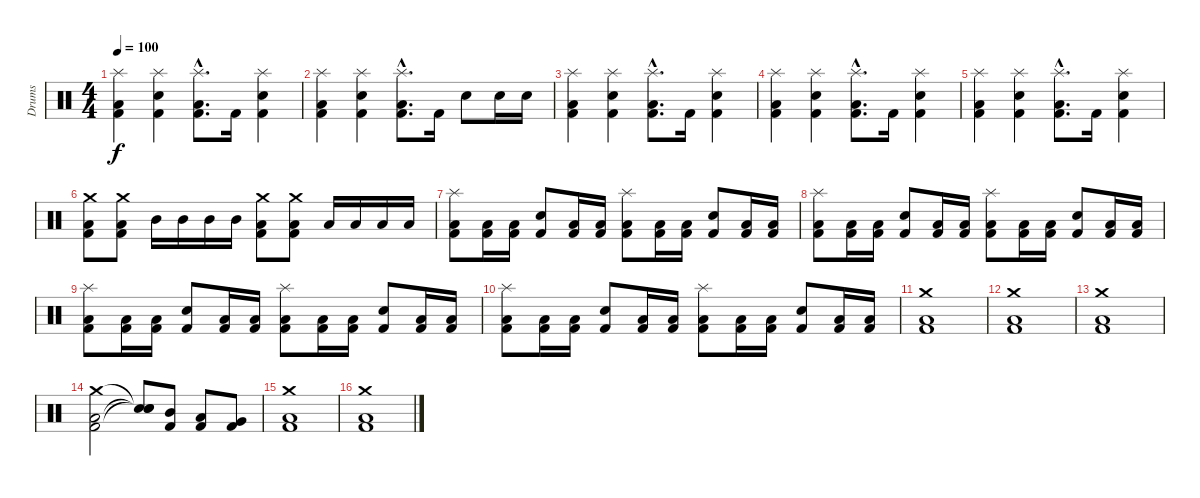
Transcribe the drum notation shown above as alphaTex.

\track ("Drums" "Drums") {instrument percussion}
\staff {score}
\articulation defaults
\ts (4 4)
\tempo 100
\clef neutral
\ks c
("Splash (hit)" "Low Floor Tom (hit)" "Kick (hit) 2").4{dy f} ("Splash (hit)" "Snare (hit) 2" "Kick (hit) 2").4 ("Splash (hit)"{hac} "Low Floor Tom (hit)"{hac} "Kick (hit) 2"{hac}).8{d} "Kick (hit) 2".16 ("Splash (hit)" "Snare (hit) 2" "Kick (hit) 2").4 |
("Splash (hit)" "Low Floor Tom (hit)" "Kick (hit) 2").4 ("Splash (hit)" "Snare (hit) 2" "Kick (hit) 2").4 ("Splash (hit)"{hac} "Low Floor Tom (hit)"{hac} "Kick (hit) 2"{hac}).8{d} "Kick (hit) 2".16 "Snare (hit) 2".8 "Snare (hit) 2".16 "Snare (hit) 2".16 |
("Splash (hit)" "Low Floor Tom (hit)" "Kick (hit) 2").4 ("Splash (hit)" "Snare (hit) 2" "Kick (hit) 2").4 ("Splash (hit)"{hac} "Low Floor Tom (hit)"{hac} "Kick (hit) 2"{hac}).8{d} "Kick (hit) 2".16 ("Splash (hit)" "Snare (hit) 2" "Kick (hit) 2").4 |
("Splash (hit)" "Low Floor Tom (hit)" "Kick (hit) 2").4 ("Splash (hit)" "Snare (hit) 2" "Kick (hit) 2").4 ("Splash (hit)"{hac} "Low Floor Tom (hit)"{hac} "Kick (hit) 2"{hac}).8{d} "Kick (hit) 2".16 ("Splash (hit)" "Snare (hit) 2" "Kick (hit) 2").4 |
("Splash (hit)" "Low Floor Tom (hit)" "Kick (hit) 2").4 ("Splash (hit)" "Snare (hit) 2" "Kick (hit) 2").4 ("Splash (hit)"{hac} "Low Floor Tom (hit)"{hac} "Kick (hit) 2"{hac}).8{d} "Kick (hit) 2".16 ("Splash (hit)" "Snare (hit) 2" "Kick (hit) 2").4 |
("Crash medium (hit)" "Low Floor Tom (hit)" "Kick (hit) 2").8 ("Crash medium (hit)" "Low Floor Tom (hit)" "Kick (hit) 2").8 "Mid Tom (hit)".16 "Mid Tom (hit)".16 "Mid Tom (hit)".16 "Mid Tom (hit)".16 ("Crash medium (hit)" "Low Floor Tom (hit)" "Kick (hit) 2").8 ("Crash medium (hit)" "Low Floor Tom (hit)" "Kick (hit) 2").8 "Low Tom (hit)".16 "Low Tom (hit)".16 "Low Tom (hit)".16 "Low Tom (hit)".16 |
("Splash (hit)" "Low Floor Tom (hit)" "Kick (hit) 2").8 ("Low Floor Tom (hit)" "Kick (hit) 2").16 ("Low Floor Tom (hit)" "Kick (hit) 2").16 ("Snare (hit) 2" "Kick (hit) 2").8 ("Low Floor Tom (hit)" "Kick (hit) 2").16 ("Low Floor Tom (hit)" "Kick (hit) 2").16 ("Splash (hit)" "Low Floor Tom (hit)" "Kick (hit) 2").8 ("Low Floor Tom (hit)" "Kick (hit) 2").16 ("Low Floor Tom (hit)" "Kick (hit) 2").16 ("Snare (hit) 2" "Kick (hit) 2").8 ("Low Floor Tom (hit)" "Kick (hit) 2").16 ("Low Floor Tom (hit)" "Kick (hit) 2").16 |
("Splash (hit)" "Low Floor Tom (hit)" "Kick (hit) 2").8 ("Low Floor Tom (hit)" "Kick (hit) 2").16 ("Low Floor Tom (hit)" "Kick (hit) 2").16 ("Snare (hit) 2" "Kick (hit) 2").8 ("Low Floor Tom (hit)" "Kick (hit) 2").16 ("Low Floor Tom (hit)" "Kick (hit) 2").16 ("Splash (hit)" "Low Floor Tom (hit)" "Kick (hit) 2").8 ("Low Floor Tom (hit)" "Kick (hit) 2").16 ("Low Floor Tom (hit)" "Kick (hit) 2").16 ("Snare (hit) 2" "Kick (hit) 2").8 ("Low Floor Tom (hit)" "Kick (hit) 2").16 ("Low Floor Tom (hit)" "Kick (hit) 2").16 |
("Splash (hit)" "Low Floor Tom (hit)" "Kick (hit) 2").8 ("Low Floor Tom (hit)" "Kick (hit) 2").16 ("Low Floor Tom (hit)" "Kick (hit) 2").16 ("Snare (hit) 2" "Kick (hit) 2").8 ("Low Floor Tom (hit)" "Kick (hit) 2").16 ("Low Floor Tom (hit)" "Kick (hit) 2").16 ("Splash (hit)" "Low Floor Tom (hit)" "Kick (hit) 2").8 ("Low Floor Tom (hit)" "Kick (hit) 2").16 ("Low Floor Tom (hit)" "Kick (hit) 2").16 ("Snare (hit) 2" "Kick (hit) 2").8 ("Low Floor Tom (hit)" "Kick (hit) 2").16 ("Low Floor Tom (hit)" "Kick (hit) 2").16 |
("Splash (hit)" "Low Floor Tom (hit)" "Kick (hit) 2").8 ("Low Floor Tom (hit)" "Kick (hit) 2").16 ("Low Floor Tom (hit)" "Kick (hit) 2").16 ("Snare (hit) 2" "Kick (hit) 2").8 ("Low Floor Tom (hit)" "Kick (hit) 2").16 ("Low Floor Tom (hit)" "Kick (hit) 2").16 ("Splash (hit)" "Low Floor Tom (hit)" "Kick (hit) 2").8 ("Low Floor Tom (hit)" "Kick (hit) 2").16 ("Low Floor Tom (hit)" "Kick (hit) 2").16 ("Snare (hit) 2" "Kick (hit) 2").8 ("Low Floor Tom (hit)" "Kick (hit) 2").16 ("Low Floor Tom (hit)" "Kick (hit) 2").16 |
("Crash medium (hit)" "Low Floor Tom (hit)" "Kick (hit) 2").1 |
("Crash medium (hit)" "Low Floor Tom (hit)" "Kick (hit) 2").1 |
("Crash medium (hit)" "Low Floor Tom (hit)" "Kick (hit) 2").1 |
("Crash medium (hit)" "Low Floor Tom (hit)" "Kick (hit) 2").2 ("Snare (hit)"{t} "Snare (hit)"{t} "Snare (hit)"{t}).8 ("Mid Tom (hit)" "Kick (hit) 2").8 ("Low Tom (hit)" "Kick (hit) 2").8 ("Very Low Tom (hit)" "Kick (hit) 2").8 |
("Crash medium (hit)" "Low Floor Tom (hit)" "Kick (hit) 2").1 |
("Crash medium (hit)" "Low Floor Tom (hit)" "Kick (hit) 2").1
